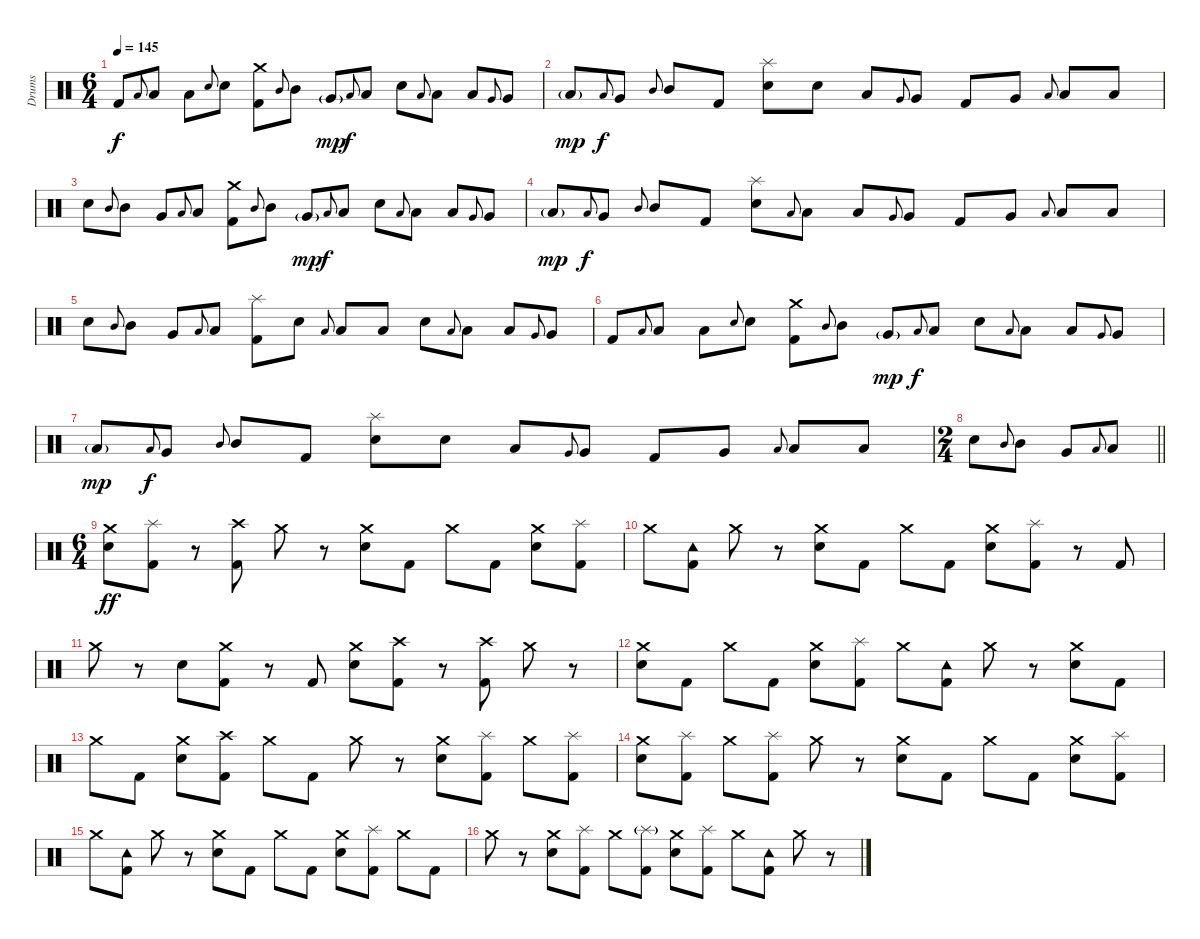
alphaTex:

\track ("Drums" "Drums") {instrument percussion}
\staff {score}
\articulation defaults
\ts (6 4)
\tempo 145
\clef neutral
\ks c "Kick (hit) 2".8{dy f} "Low Tom (hit)".8{gr onbeat} "Low Tom (hit)".8 "Low Floor Tom (hit)".8 "Electric Snare (hit)".8{gr onbeat} "Electric Snare (hit)".8
("Crash medium (hit)" "Kick (hit) 2").8 "Mid Tom (hit)".8{gr onbeat} "Mid Tom (hit)".8 "Very Low Tom (hit)"{g}.8{dy mp} "Low Tom (hit)".8{gr onbeat dy f} "Low Tom (hit)".8 "Electric Snare (hit)".8 "Low Tom (hit)".8{gr onbeat} "Low Tom (hit)".8 "Low Floor Tom (hit)".8 "Very Low Tom (hit)".8{gr onbeat} "Very Low Tom (hit)".8 |
"Low Floor Tom (hit)"{g}.8{dy mp} "Low Tom (hit)".8{gr onbeat dy f} "Very Low Tom (hit)".8 "Mid Tom (hit)".8{gr onbeat} "Mid Tom (hit)".8 "Kick (hit) 2".8 ("Splash (hit)" "Electric Snare (hit)").8 "Electric Snare (hit)".8 "Low Floor Tom (hit)".8 "Very Low Tom (hit)".8{gr onbeat} "Very Low Tom (hit)".8 "Kick (hit) 2".8 "Very Low Tom (hit)".8 "Low Tom (hit)".8{gr onbeat} "Low Tom (hit)".8 "Low Floor Tom (hit)".8 |
"Electric Snare (hit)".8 "Mid Tom (hit)".8{gr onbeat} "Mid Tom (hit)".8 "Very Low Tom (hit)".8 "Low Tom (hit)".8{gr onbeat} "Low Tom (hit)".8 ("Crash medium (hit)" "Kick (hit) 2").8 "Mid Tom (hit)".8{gr onbeat} "Mid Tom (hit)".8 "Very Low Tom (hit)"{g}.8{dy mp} "Low Tom (hit)".8{gr onbeat dy f} "Low Tom (hit)".8 "Electric Snare (hit)".8 "Low Tom (hit)".8{gr onbeat} "Low Tom (hit)".8 "Low Floor Tom (hit)".8 "Very Low Tom (hit)".8{gr onbeat} "Very Low Tom (hit)".8 |
"Low Floor Tom (hit)"{g}.8{dy mp} "Low Tom (hit)".8{gr onbeat dy f} "Very Low Tom (hit)".8 "Mid Tom (hit)".8{gr onbeat} "Mid Tom (hit)".8 "Kick (hit) 2".8 ("Splash (hit)" "Electric Snare (hit)").8 "Low Tom (hit)".8{gr onbeat} "Low Tom (hit)".8 "Low Floor Tom (hit)".8 "Very Low Tom (hit)".8{gr onbeat} "Very Low Tom (hit)".8 "Kick (hit) 2".8 "Very Low Tom (hit)".8 "Low Tom (hit)".8{gr onbeat} "Low Tom (hit)".8 "Low Floor Tom (hit)".8 |
"Electric Snare (hit)".8 "Mid Tom (hit)".8{gr onbeat} "Mid Tom (hit)".8 "Very Low Tom (hit)".8 "Low Tom (hit)".8{gr onbeat} "Low Tom (hit)".8 ("Splash (hit)" "Kick (hit) 2").8 "Electric Snare (hit)".8 "Low Tom (hit)".8{gr onbeat} "Low Tom (hit)".8 "Low Floor Tom (hit)".8 "Electric Snare (hit)".8 "Low Tom (hit)".8{gr onbeat} "Low Tom (hit)".8 "Low Floor Tom (hit)".8 "Very Low Tom (hit)".8{gr onbeat} "Very Low Tom (hit)".8 |
"Kick (hit) 2".8 "Low Tom (hit)".8{gr onbeat} "Low Tom (hit)".8 "Low Floor Tom (hit)".8 "Electric Snare (hit)".8{gr onbeat} "Electric Snare (hit)".8 ("Crash medium (hit)" "Kick (hit) 2").8 "Mid Tom (hit)".8{gr onbeat} "Mid Tom (hit)".8 "Very Low Tom (hit)"{g}.8{dy mp} "Low Tom (hit)".8{gr onbeat dy f} "Low Tom (hit)".8 "Electric Snare (hit)".8 "Low Tom (hit)".8{gr onbeat} "Low Tom (hit)".8 "Low Floor Tom (hit)".8 "Very Low Tom (hit)".8{gr onbeat} "Very Low Tom (hit)".8 |
"Low Floor Tom (hit)"{g}.8{dy mp} "Low Tom (hit)".8{gr onbeat dy f} "Very Low Tom (hit)".8 "Mid Tom (hit)".8{gr onbeat} "Mid Tom (hit)".8 "Kick (hit) 2".8 ("Splash (hit)" "Electric Snare (hit)").8 "Electric Snare (hit)".8 "Low Floor Tom (hit)".8 "Very Low Tom (hit)".8{gr onbeat} "Very Low Tom (hit)".8 "Kick (hit) 2".8 "Very Low Tom (hit)".8 "Low Tom (hit)".8{gr onbeat} "Low Tom (hit)".8 "Low Floor Tom (hit)".8 |
\ts (2 4)
\barLineRight lightlight "Electric Snare (hit)".8 "Mid Tom (hit)".8{gr onbeat} "Mid Tom (hit)".8 "Very Low Tom (hit)".8 "Low Tom (hit)".8{gr onbeat} "Low Tom (hit)".8
|
\ts (6 4)
\section ("" "")
("Crash medium (hit)" "Electric Snare (hit)").8{dy ff} ("Splash (hit)" "Kick (hit) 2").8 r.8 ("Crash high (hit)" "Kick (hit) 2").8 "Crash medium (hit)".8 r.8 ("Crash medium (hit)" "Electric Snare (hit)").8 "Kick (hit) 2".8 "Crash medium (hit)".8 "Kick (hit) 2".8 ("Crash medium (hit)" "Electric Snare (hit)").8 ("Splash (hit)" "Kick (hit) 2").8 |
"Crash medium (hit)".8 ("Tambourine (hit)" "Kick (hit) 2").8 "Crash medium (hit)".8 r.8 ("Crash medium (hit)" "Electric Snare (hit)").8 "Kick (hit) 2".8 "Crash medium (hit)".8 "Kick (hit) 2".8 ("Crash medium (hit)" "Electric Snare (hit)").8 ("Splash (hit)" "Kick (hit) 2").8 r.8 "Kick (hit) 2".8 |
"Crash medium (hit)".8 r.8 "Electric Snare (hit)".8 ("Crash medium (hit)" "Kick (hit) 2").8 r.8 "Kick (hit) 2".8 ("Crash medium (hit)" "Electric Snare (hit)").8 ("Crash high (hit)" "Kick (hit) 2").8 r.8 ("Crash high (hit)" "Kick (hit) 2").8 "Crash medium (hit)".8 r.8 |
("Crash medium (hit)" "Electric Snare (hit)").8 "Kick (hit) 2".8 "Crash medium (hit)".8 "Kick (hit) 2".8 ("Crash medium (hit)" "Electric Snare (hit)").8 ("Splash (hit)" "Kick (hit) 2").8 "Crash medium (hit)".8 ("Tambourine (hit)" "Kick (hit) 2").8 "Crash medium (hit)".8 r.8 ("Crash medium (hit)" "Electric Snare (hit)").8 "Kick (hit) 2".8 |
"Crash medium (hit)".8 "Kick (hit) 2".8 ("Crash medium (hit)" "Electric Snare (hit)").8 ("Crash high (hit)" "Kick (hit) 2").8 "Crash medium (hit)".8 "Kick (hit) 2".8 "Crash medium (hit)".8 r.8 ("Crash medium (hit)" "Electric Snare (hit)").8 ("Splash (hit)" "Kick (hit) 2").8 "Crash medium (hit)".8 ("Splash (hit)" "Kick (hit) 2").8 |
("Crash medium (hit)" "Electric Snare (hit)").8 ("Splash (hit)" "Kick (hit) 2").8 "Crash medium (hit)".8 ("Splash (hit)" "Kick (hit) 2").8 "Crash medium (hit)".8 r.8 ("Crash medium (hit)" "Electric Snare (hit)").8 "Kick (hit) 2".8 "Crash medium (hit)".8 "Kick (hit) 2".8 ("Crash medium (hit)" "Electric Snare (hit)").8 ("Splash (hit)" "Kick (hit) 2").8 |
"Crash medium (hit)".8 ("Tambourine (hit)" "Kick (hit) 2").8 "Crash medium (hit)".8 r.8 ("Crash medium (hit)" "Electric Snare (hit)").8 "Kick (hit) 2".8 "Crash medium (hit)".8 "Kick (hit) 2".8 ("Crash medium (hit)" "Electric Snare (hit)").8 ("Splash (hit)" "Kick (hit) 2").8 "Crash medium (hit)".8 "Kick (hit) 2".8 |
"Crash medium (hit)".8 r.8 ("Crash medium (hit)" "Electric Snare (hit)").8 ("Splash (hit)" "Kick (hit) 2").8 "Crash medium (hit)".8 ("Splash (hit)"{g} "Kick (hit) 2").8 ("Crash medium (hit)" "Electric Snare (hit)").8 ("Splash (hit)" "Kick (hit) 2").8 "Crash medium (hit)".8 ("Tambourine (hit)" "Kick (hit) 2").8 "Crash medium (hit)".8 r.8
